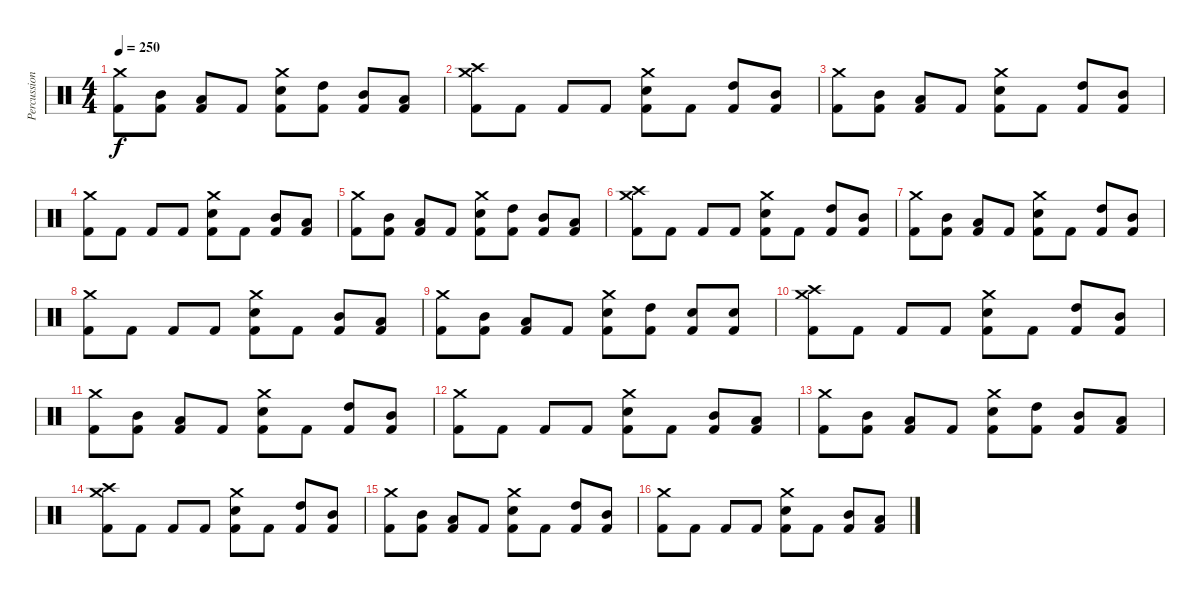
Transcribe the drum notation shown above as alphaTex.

\track ("Percussion" "Percussion") {instrument percussion}
\staff {score}
\articulation defaults
\ts (4 4)
\tempo 250
\clef neutral
\ks c
("Crash medium (hit)" "Kick (hit) 2").8{dy f} ("Mid Tom (hit)" "Kick (hit) 2").8 ("Low Tom (hit)" "Kick (hit) 2").8 "Kick (hit) 2".8 ("Crash medium (hit)" "Electric Snare (hit)" "Kick (hit) 2").8 ("High Tom (hit)" "Kick (hit) 2").8 ("Mid Tom (hit)" "Kick (hit) 2").8 ("Low Tom (hit)" "Kick (hit) 2").8 |
("Crash high (hit)" "Crash medium (hit)" "Kick (hit) 2").8 "Kick (hit) 2".8 "Kick (hit) 2".8 "Kick (hit) 2".8 ("Crash medium (hit)" "Electric Snare (hit)" "Kick (hit) 2").8 "Kick (hit) 2".8 ("High Tom (hit)" "Kick (hit) 2").8 ("Mid Tom (hit)" "Kick (hit) 2").8 |
("Crash medium (hit)" "Kick (hit) 2").8 ("Mid Tom (hit)" "Kick (hit) 2").8 ("Low Tom (hit)" "Kick (hit) 2").8 "Kick (hit) 2".8 ("Crash medium (hit)" "Electric Snare (hit)" "Kick (hit) 2").8 "Kick (hit) 2".8 ("High Tom (hit)" "Kick (hit) 2").8 ("Mid Tom (hit)" "Kick (hit) 2").8 |
("Crash medium (hit)" "Kick (hit) 2").8 "Kick (hit) 2".8 "Kick (hit) 2".8 "Kick (hit) 2".8 ("Crash medium (hit)" "Electric Snare (hit)" "Kick (hit) 2").8 "Kick (hit) 2".8 ("Mid Tom (hit)" "Kick (hit) 2").8 ("Low Tom (hit)" "Kick (hit) 2").8 |
("Crash medium (hit)" "Kick (hit) 2").8 ("Mid Tom (hit)" "Kick (hit) 2").8 ("Low Tom (hit)" "Kick (hit) 2").8 "Kick (hit) 2".8 ("Crash medium (hit)" "Electric Snare (hit)" "Kick (hit) 2").8 ("High Tom (hit)" "Kick (hit) 2").8 ("Mid Tom (hit)" "Kick (hit) 2").8 ("Low Tom (hit)" "Kick (hit) 2").8 |
("Crash high (hit)" "Crash medium (hit)" "Kick (hit) 2").8 "Kick (hit) 2".8 "Kick (hit) 2".8 "Kick (hit) 2".8 ("Crash medium (hit)" "Electric Snare (hit)" "Kick (hit) 2").8 "Kick (hit) 2".8 ("High Tom (hit)" "Kick (hit) 2").8 ("Mid Tom (hit)" "Kick (hit) 2").8 |
("Crash medium (hit)" "Kick (hit) 2").8 ("Mid Tom (hit)" "Kick (hit) 2").8 ("Low Tom (hit)" "Kick (hit) 2").8 "Kick (hit) 2".8 ("Crash medium (hit)" "Electric Snare (hit)" "Kick (hit) 2").8 "Kick (hit) 2".8 ("High Tom (hit)" "Kick (hit) 2").8 ("Mid Tom (hit)" "Kick (hit) 2").8 |
("Crash medium (hit)" "Kick (hit) 2").8 "Kick (hit) 2".8 "Kick (hit) 2".8 "Kick (hit) 2".8 ("Crash medium (hit)" "Electric Snare (hit)" "Kick (hit) 2").8 "Kick (hit) 2".8 ("Mid Tom (hit)" "Kick (hit) 2").8 ("Low Tom (hit)" "Kick (hit) 2").8 |
("Crash medium (hit)" "Kick (hit) 2").8 ("Mid Tom (hit)" "Kick (hit) 2").8 ("Low Tom (hit)" "Kick (hit) 2").8 "Kick (hit) 2".8 ("Crash medium (hit)" "Electric Snare (hit)" "Kick (hit) 2").8 ("High Tom (hit)" "Kick (hit) 2").8 ("Electric Snare (hit)" "Kick (hit) 2").8 ("Electric Snare (hit)" "Kick (hit) 2").8 |
("Crash high (hit)" "Crash medium (hit)" "Kick (hit) 2").8 "Kick (hit) 2".8 "Kick (hit) 2".8 "Kick (hit) 2".8 ("Crash medium (hit)" "Electric Snare (hit)" "Kick (hit) 2").8 "Kick (hit) 2".8 ("High Tom (hit)" "Kick (hit) 2").8 ("Mid Tom (hit)" "Kick (hit) 2").8 |
("Crash medium (hit)" "Kick (hit) 2").8 ("Mid Tom (hit)" "Kick (hit) 2").8 ("Low Tom (hit)" "Kick (hit) 2").8 "Kick (hit) 2".8 ("Crash medium (hit)" "Electric Snare (hit)" "Kick (hit) 2").8 "Kick (hit) 2".8 ("High Tom (hit)" "Kick (hit) 2").8 ("Mid Tom (hit)" "Kick (hit) 2").8 |
("Crash medium (hit)" "Kick (hit) 2").8 "Kick (hit) 2".8 "Kick (hit) 2".8 "Kick (hit) 2".8 ("Crash medium (hit)" "Electric Snare (hit)" "Kick (hit) 2").8 "Kick (hit) 2".8 ("Mid Tom (hit)" "Kick (hit) 2").8 ("Low Tom (hit)" "Kick (hit) 2").8 |
("Crash medium (hit)" "Kick (hit) 2").8 ("Mid Tom (hit)" "Kick (hit) 2").8 ("Low Tom (hit)" "Kick (hit) 2").8 "Kick (hit) 2".8 ("Crash medium (hit)" "Electric Snare (hit)" "Kick (hit) 2").8 ("High Tom (hit)" "Kick (hit) 2").8 ("Mid Tom (hit)" "Kick (hit) 2").8 ("Low Tom (hit)" "Kick (hit) 2").8 |
("Crash high (hit)" "Crash medium (hit)" "Kick (hit) 2").8 "Kick (hit) 2".8 "Kick (hit) 2".8 "Kick (hit) 2".8 ("Crash medium (hit)" "Electric Snare (hit)" "Kick (hit) 2").8 "Kick (hit) 2".8 ("High Tom (hit)" "Kick (hit) 2").8 ("Mid Tom (hit)" "Kick (hit) 2").8 |
("Crash medium (hit)" "Kick (hit) 2").8 ("Mid Tom (hit)" "Kick (hit) 2").8 ("Low Tom (hit)" "Kick (hit) 2").8 "Kick (hit) 2".8 ("Crash medium (hit)" "Electric Snare (hit)" "Kick (hit) 2").8 "Kick (hit) 2".8 ("High Tom (hit)" "Kick (hit) 2").8 ("Mid Tom (hit)" "Kick (hit) 2").8 |
("Crash medium (hit)" "Kick (hit) 2").8 "Kick (hit) 2".8 "Kick (hit) 2".8 "Kick (hit) 2".8 ("Crash medium (hit)" "Electric Snare (hit)" "Kick (hit) 2").8 "Kick (hit) 2".8 ("Mid Tom (hit)" "Kick (hit) 2").8 ("Low Tom (hit)" "Kick (hit) 2").8
